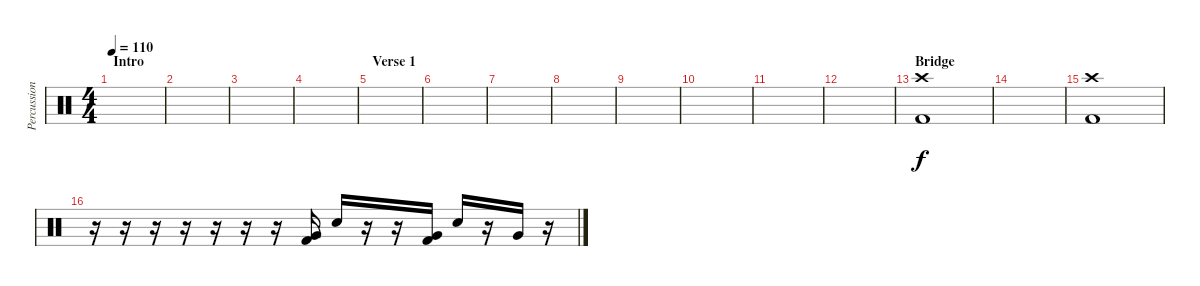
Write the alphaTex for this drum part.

\track ("Percussion" "Percussion") {instrument percussion}
\staff {score}
\articulation defaults
\ts (4 4)
\section ("" "Intro")
\tempo 110
\clef neutral
\ks c
|
|
|
|
\section ("" "Verse 1")
|
|
|
|
|
|
|
|
\section ("" "Bridge")
("Crash high (hit)" "Kick (hit) 2").1 |
|
("Crash high (hit)" "Kick (hit) 2").1 |
r.16 r.16 r.16 r.16 r.16 r.16 r.16 ("Very Low Tom (hit)" "Kick (hit) 2").16{dy f volume 12} "Snare (hit) 2".16 r.16 r.16 ("Very Low Tom (hit)" "Kick (hit) 2").16 "Snare (hit) 2".16 r.16 "Very Low Tom (hit)".16 r.16
